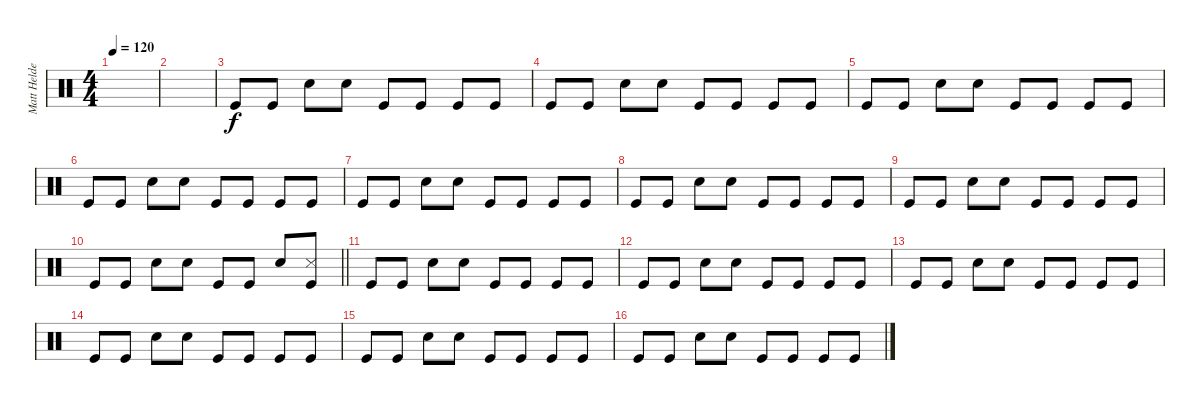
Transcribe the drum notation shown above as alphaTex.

\track ("Matt Helders" "Matt Helde") {instrument percussion}
\staff {score}
\articulation defaults
\ts (4 4)
\tempo 120
\clef neutral
\ks c
|
|
"Kick (hit)".8 "Kick (hit)".8 "Electric Snare (hit)".8 "Electric Snare (hit)".8 "Kick (hit)".8 "Kick (hit)".8 "Kick (hit)".8 "Kick (hit)".8 |
"Kick (hit)".8 "Kick (hit)".8 "Electric Snare (hit)".8 "Electric Snare (hit)".8 "Kick (hit)".8 "Kick (hit)".8 "Kick (hit)".8 "Kick (hit)".8 |
"Kick (hit)".8 "Kick (hit)".8 "Electric Snare (hit)".8 "Electric Snare (hit)".8 "Kick (hit)".8 "Kick (hit)".8 "Kick (hit)".8 "Kick (hit)".8 |
"Kick (hit)".8 "Kick (hit)".8 "Electric Snare (hit)".8 "Electric Snare (hit)".8 "Kick (hit)".8 "Kick (hit)".8 "Kick (hit)".8 "Kick (hit)".8 |
"Kick (hit)".8 "Kick (hit)".8 "Electric Snare (hit)".8 "Electric Snare (hit)".8 "Kick (hit)".8 "Kick (hit)".8 "Kick (hit)".8 "Kick (hit)".8 |
"Kick (hit)".8 "Kick (hit)".8 "Electric Snare (hit)".8 "Electric Snare (hit)".8 "Kick (hit)".8 "Kick (hit)".8 "Kick (hit)".8 "Kick (hit)".8 |
"Kick (hit)".8 "Kick (hit)".8 "Electric Snare (hit)".8 "Electric Snare (hit)".8 "Kick (hit)".8 "Kick (hit)".8 "Kick (hit)".8 "Kick (hit)".8 |
\barLineRight lightlight "Kick (hit)".8 "Kick (hit)".8 "Electric Snare (hit)".8 "Electric Snare (hit)".8 "Kick (hit)".8 "Kick (hit)".8 "Snare (hit) 2".8
("Metronome (hit)" "Kick (hit)").8 |
\section ("" "")
"Kick (hit)".8 "Kick (hit)".8 "Electric Snare (hit)".8 "Electric Snare (hit)".8 "Kick (hit)".8 "Kick (hit)".8 "Kick (hit)".8 "Kick (hit)".8 |
"Kick (hit)".8 "Kick (hit)".8 "Electric Snare (hit)".8 "Electric Snare (hit)".8 "Kick (hit)".8 "Kick (hit)".8 "Kick (hit)".8 "Kick (hit)".8 |
"Kick (hit)".8 "Kick (hit)".8 "Electric Snare (hit)".8 "Electric Snare (hit)".8 "Kick (hit)".8 "Kick (hit)".8 "Kick (hit)".8 "Kick (hit)".8 |
"Kick (hit)".8 "Kick (hit)".8 "Electric Snare (hit)".8 "Electric Snare (hit)".8 "Kick (hit)".8 "Kick (hit)".8 "Kick (hit)".8 "Kick (hit)".8 |
"Kick (hit)".8 "Kick (hit)".8 "Electric Snare (hit)".8 "Electric Snare (hit)".8 "Kick (hit)".8 "Kick (hit)".8 "Kick (hit)".8 "Kick (hit)".8 |
"Kick (hit)".8 "Kick (hit)".8 "Electric Snare (hit)".8 "Electric Snare (hit)".8 "Kick (hit)".8 "Kick (hit)".8 "Kick (hit)".8 "Kick (hit)".8
